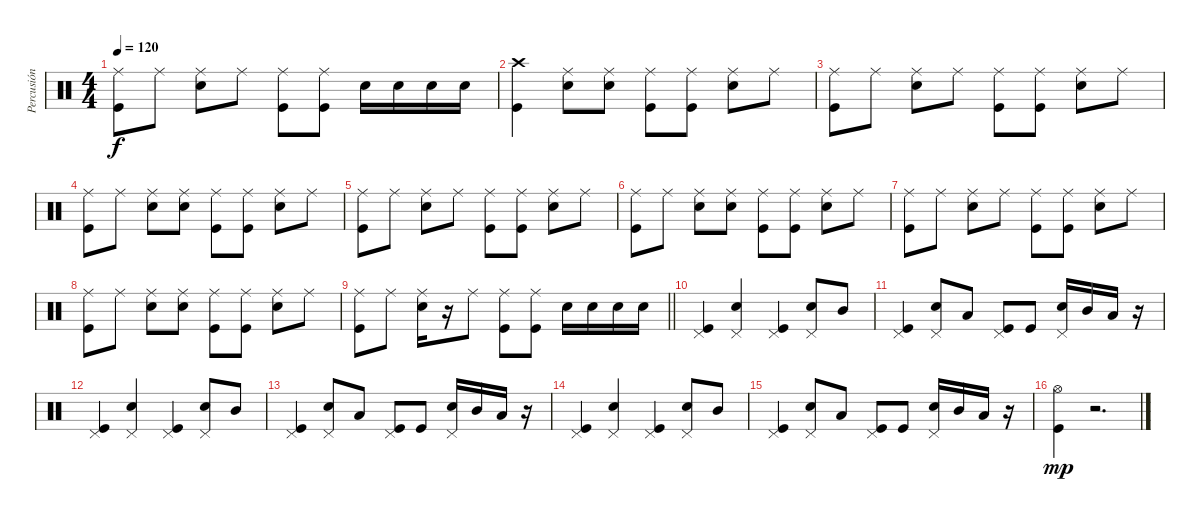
\track ("Percusión" "Percusión") {instrument percussion}
\staff {score}
\articulation defaults
\ts (4 4)
\tempo 120
\clef neutral
\ks c
("Ride (middle)" "Kick (hit)").8{dy f} "Ride (middle)".8 ("Ride (middle)" "Snare (hit) 2").8 "Ride (middle)".8 ("Ride (middle)" "Kick (hit)").8 ("Ride (middle)" "Kick (hit)").8 "Snare (hit) 2".16 "Snare (hit) 2".16 "Snare (hit) 2".16 "Snare (hit) 2".16 |
("Crash high (hit)" "Kick (hit)").4 ("Ride (middle)" "Snare (hit) 2").8 ("Ride (middle)" "Snare (hit) 2").8 ("Ride (middle)" "Kick (hit)").8 ("Ride (middle)" "Kick (hit)").8 ("Ride (middle)" "Snare (hit) 2").8 "Ride (middle)".8 |
("Ride (middle)" "Kick (hit)").8 "Ride (middle)".8 ("Ride (middle)" "Snare (hit) 2").8 "Ride (middle)".8 ("Ride (middle)" "Kick (hit)").8 ("Ride (middle)" "Kick (hit)").8 ("Ride (middle)" "Snare (hit) 2").8 "Ride (middle)".8 |
("Ride (middle)" "Kick (hit)").8 "Ride (middle)".8 ("Ride (middle)" "Snare (hit) 2").8 ("Ride (middle)" "Snare (hit) 2").8 ("Ride (middle)" "Kick (hit)").8 ("Ride (middle)" "Kick (hit)").8 ("Ride (middle)" "Snare (hit) 2").8 "Ride (middle)".8 |
("Ride (middle)" "Kick (hit)").8 "Ride (middle)".8 ("Ride (middle)" "Snare (hit) 2").8 "Ride (middle)".8 ("Ride (middle)" "Kick (hit)").8 ("Ride (middle)" "Kick (hit)").8 ("Ride (middle)" "Snare (hit) 2").8 "Ride (middle)".8 |
("Ride (middle)" "Kick (hit)").8 "Ride (middle)".8 ("Ride (middle)" "Snare (hit) 2").8 ("Ride (middle)" "Snare (hit) 2").8 ("Ride (middle)" "Kick (hit)").8 ("Ride (middle)" "Kick (hit)").8 ("Ride (middle)" "Snare (hit) 2").8 "Ride (middle)".8 |
("Ride (middle)" "Kick (hit)").8 "Ride (middle)".8 ("Ride (middle)" "Snare (hit) 2").8 "Ride (middle)".8 ("Ride (middle)" "Kick (hit)").8 ("Ride (middle)" "Kick (hit)").8 ("Ride (middle)" "Snare (hit) 2").8 "Ride (middle)".8 |
("Ride (middle)" "Kick (hit)").8 "Ride (middle)".8 ("Ride (middle)" "Snare (hit) 2").8 ("Ride (middle)" "Snare (hit) 2").8 ("Ride (middle)" "Kick (hit)").8 ("Ride (middle)" "Kick (hit)").8 ("Ride (middle)" "Snare (hit) 2").8 "Ride (middle)".8 |
\barLineRight lightlight
("Ride (middle)" "Kick (hit)").8 "Ride (middle)".8 ("Ride (middle)" "Snare (hit) 2").16 r.16 "Ride (middle)".8 ("Ride (middle)" "Kick (hit)").8 ("Ride (middle)" "Kick (hit)").8 "Snare (hit) 2".16 "Snare (hit) 2".16 "Snare (hit) 2".16 "Snare (hit) 2".16 |
("Kick (hit)" "Pedal Hi-Hat (hit)").4 ("Snare (hit) 2" "Pedal Hi-Hat (hit)").4 ("Kick (hit)" "Pedal Hi-Hat (hit)").4 ("Snare (hit) 2" "Pedal Hi-Hat (hit)").8 "Mid Tom (hit)".8 |
("Kick (hit)" "Pedal Hi-Hat (hit)").4 ("Snare (hit) 2" "Pedal Hi-Hat (hit)").8 "Low Tom (hit)".8 ("Kick (hit)" "Pedal Hi-Hat (hit)").8 "Kick (hit)".8 ("Snare (hit) 2" "Pedal Hi-Hat (hit)").16 "Mid Tom (hit)".16 "Low Tom (hit)".16 r.16 |
("Kick (hit)" "Pedal Hi-Hat (hit)").4 ("Snare (hit) 2" "Pedal Hi-Hat (hit)").4 ("Kick (hit)" "Pedal Hi-Hat (hit)").4 ("Snare (hit) 2" "Pedal Hi-Hat (hit)").8 "Mid Tom (hit)".8 |
("Kick (hit)" "Pedal Hi-Hat (hit)").4 ("Snare (hit) 2" "Pedal Hi-Hat (hit)").8 "Low Tom (hit)".8 ("Kick (hit)" "Pedal Hi-Hat (hit)").8 "Kick (hit)".8 ("Snare (hit) 2" "Pedal Hi-Hat (hit)").16 "Mid Tom (hit)".16 "Low Tom (hit)".16 r.16 |
("Kick (hit)" "Pedal Hi-Hat (hit)").4 ("Snare (hit) 2" "Pedal Hi-Hat (hit)").4 ("Kick (hit)" "Pedal Hi-Hat (hit)").4 ("Snare (hit) 2" "Pedal Hi-Hat (hit)").8 "Mid Tom (hit)".8 |
("Kick (hit)" "Pedal Hi-Hat (hit)").4 ("Snare (hit) 2" "Pedal Hi-Hat (hit)").8 "Low Tom (hit)".8 ("Kick (hit)" "Pedal Hi-Hat (hit)").8 "Kick (hit)".8 ("Snare (hit) 2" "Pedal Hi-Hat (hit)").16 "Mid Tom (hit)".16 "Low Tom (hit)".16 r.16 |
("Hi-Hat (open)" "Kick (hit)").4{dy mp} r.2{d}
